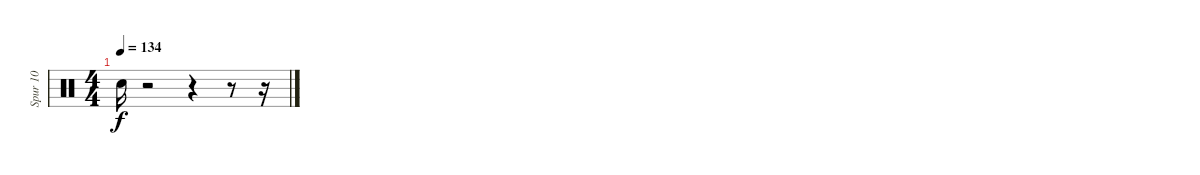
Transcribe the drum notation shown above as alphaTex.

\track ("Spur 10" "Spur 10") {instrument percussion}
\staff {score}
\articulation defaults
\ts (4 4)
\tempo 134
\clef neutral
\ks c "Snare (hit)"{t}.16{dy f}
r.2 r.4 r.8 r.16
